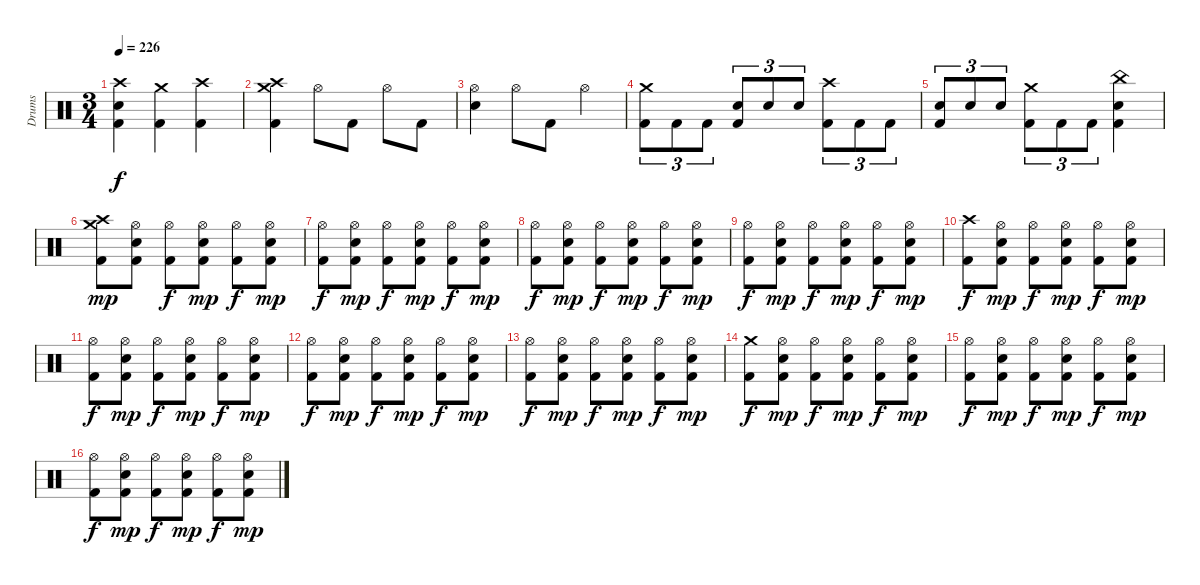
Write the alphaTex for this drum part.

\track ("Drums" "Drums") {instrument percussion}
\staff {score}
\articulation defaults
\ts (3 4)
\tempo 226
\clef neutral
\ks c
("Crash high (hit)" "Electric Snare (hit)" "Kick (hit) 2").4{dy f} ("Crash medium (hit)" "Kick (hit) 2").4 ("Crash high (hit)" "Kick (hit) 2").4 |
("Crash high (hit)" "Crash medium (hit)" "Kick (hit) 2").4 "Hi-Hat (open)".8 "Kick (hit) 2".8 "Hi-Hat (open)".8 "Kick (hit) 2".8 |
("Hi-Hat (open)" "Electric Snare (hit)").4 "Hi-Hat (open)".8 "Kick (hit) 2".8 "Hi-Hat (open)".4 |
("Crash medium (hit)" "Kick (hit) 2").8{tu (3 2)} "Kick (hit) 2".8{tu (3 2)} "Kick (hit) 2".8{tu (3 2)} ("Electric Snare (hit)" "Kick (hit) 2").8{tu (3 2)} "Electric Snare (hit)".8{tu (3 2)} "Electric Snare (hit)".8{tu (3 2)} ("Crash high (hit)" "Kick (hit) 2").8{tu (3 2)} "Kick (hit) 2".8{tu (3 2)} "Kick (hit) 2".8{tu (3 2)} |
("Electric Snare (hit)" "Kick (hit) 2").8{tu (3 2)} "Electric Snare (hit)".8{tu (3 2)} "Electric Snare (hit)".8{tu (3 2)} ("Crash medium (hit)" "Kick (hit) 2").8{tu (3 2)} "Kick (hit) 2".8{tu (3 2)} "Kick (hit) 2".8{tu (3 2)} ("China (hit)" "Electric Snare (hit)" "Kick (hit) 2").4 |
("Crash high (hit)" "Crash medium (hit)" "Kick (hit) 2").8{dy mp} ("Hi-Hat (open)" "Electric Snare (hit)" "Kick (hit) 2").8 ("Hi-Hat (open)" "Kick (hit) 2").8{dy f} ("Hi-Hat (open)" "Electric Snare (hit)" "Kick (hit) 2").8{dy mp} ("Hi-Hat (open)" "Kick (hit) 2").8{dy f} ("Hi-Hat (open)" "Electric Snare (hit)" "Kick (hit) 2").8{dy mp} |
("Hi-Hat (open)" "Kick (hit) 2").8{dy f} ("Hi-Hat (open)" "Electric Snare (hit)" "Kick (hit) 2").8{dy mp} ("Hi-Hat (open)" "Kick (hit) 2").8{dy f} ("Hi-Hat (open)" "Electric Snare (hit)" "Kick (hit) 2").8{dy mp} ("Hi-Hat (open)" "Kick (hit) 2").8{dy f} ("Hi-Hat (open)" "Electric Snare (hit)" "Kick (hit) 2").8{dy mp} |
("Hi-Hat (open)" "Kick (hit) 2").8{dy f} ("Hi-Hat (open)" "Electric Snare (hit)" "Kick (hit) 2").8{dy mp} ("Hi-Hat (open)" "Kick (hit) 2").8{dy f} ("Hi-Hat (open)" "Electric Snare (hit)" "Kick (hit) 2").8{dy mp} ("Hi-Hat (open)" "Kick (hit) 2").8{dy f} ("Hi-Hat (open)" "Electric Snare (hit)" "Kick (hit) 2").8{dy mp} |
("Hi-Hat (open)" "Kick (hit) 2").8{dy f} ("Hi-Hat (open)" "Electric Snare (hit)" "Kick (hit) 2").8{dy mp} ("Hi-Hat (open)" "Kick (hit) 2").8{dy f} ("Hi-Hat (open)" "Electric Snare (hit)" "Kick (hit) 2").8{dy mp} ("Hi-Hat (open)" "Kick (hit) 2").8{dy f} ("Hi-Hat (open)" "Electric Snare (hit)" "Kick (hit) 2").8{dy mp} |
("Crash high (hit)" "Kick (hit) 2").8{dy f} ("Hi-Hat (open)" "Electric Snare (hit)" "Kick (hit) 2").8{dy mp} ("Hi-Hat (open)" "Kick (hit) 2").8{dy f} ("Hi-Hat (open)" "Electric Snare (hit)" "Kick (hit) 2").8{dy mp} ("Hi-Hat (open)" "Kick (hit) 2").8{dy f} ("Hi-Hat (open)" "Electric Snare (hit)" "Kick (hit) 2").8{dy mp} |
("Hi-Hat (open)" "Kick (hit) 2").8{dy f} ("Hi-Hat (open)" "Electric Snare (hit)" "Kick (hit) 2").8{dy mp} ("Hi-Hat (open)" "Kick (hit) 2").8{dy f} ("Hi-Hat (open)" "Electric Snare (hit)" "Kick (hit) 2").8{dy mp} ("Hi-Hat (open)" "Kick (hit) 2").8{dy f} ("Hi-Hat (open)" "Electric Snare (hit)" "Kick (hit) 2").8{dy mp} |
("Hi-Hat (open)" "Kick (hit) 2").8{dy f} ("Hi-Hat (open)" "Electric Snare (hit)" "Kick (hit) 2").8{dy mp} ("Hi-Hat (open)" "Kick (hit) 2").8{dy f} ("Hi-Hat (open)" "Electric Snare (hit)" "Kick (hit) 2").8{dy mp} ("Hi-Hat (open)" "Kick (hit) 2").8{dy f} ("Hi-Hat (open)" "Electric Snare (hit)" "Kick (hit) 2").8{dy mp} |
("Hi-Hat (open)" "Kick (hit) 2").8{dy f} ("Hi-Hat (open)" "Electric Snare (hit)" "Kick (hit) 2").8{dy mp} ("Hi-Hat (open)" "Kick (hit) 2").8{dy f} ("Hi-Hat (open)" "Electric Snare (hit)" "Kick (hit) 2").8{dy mp} ("Hi-Hat (open)" "Kick (hit) 2").8{dy f} ("Hi-Hat (open)" "Electric Snare (hit)" "Kick (hit) 2").8{dy mp} |
("Crash medium (hit)" "Kick (hit) 2").8{dy f} ("Hi-Hat (open)" "Electric Snare (hit)" "Kick (hit) 2").8{dy mp} ("Hi-Hat (open)" "Kick (hit) 2").8{dy f} ("Hi-Hat (open)" "Electric Snare (hit)" "Kick (hit) 2").8{dy mp} ("Hi-Hat (open)" "Kick (hit) 2").8{dy f} ("Hi-Hat (open)" "Electric Snare (hit)" "Kick (hit) 2").8{dy mp} |
("Hi-Hat (open)" "Kick (hit) 2").8{dy f} ("Hi-Hat (open)" "Electric Snare (hit)" "Kick (hit) 2").8{dy mp} ("Hi-Hat (open)" "Kick (hit) 2").8{dy f} ("Hi-Hat (open)" "Electric Snare (hit)" "Kick (hit) 2").8{dy mp} ("Hi-Hat (open)" "Kick (hit) 2").8{dy f} ("Hi-Hat (open)" "Electric Snare (hit)" "Kick (hit) 2").8{dy mp} |
("Hi-Hat (open)" "Kick (hit) 2").8{dy f} ("Hi-Hat (open)" "Electric Snare (hit)" "Kick (hit) 2").8{dy mp} ("Hi-Hat (open)" "Kick (hit) 2").8{dy f} ("Hi-Hat (open)" "Electric Snare (hit)" "Kick (hit) 2").8{dy mp} ("Hi-Hat (open)" "Kick (hit) 2").8{dy f} ("Hi-Hat (open)" "Electric Snare (hit)" "Kick (hit) 2").8{dy mp}
